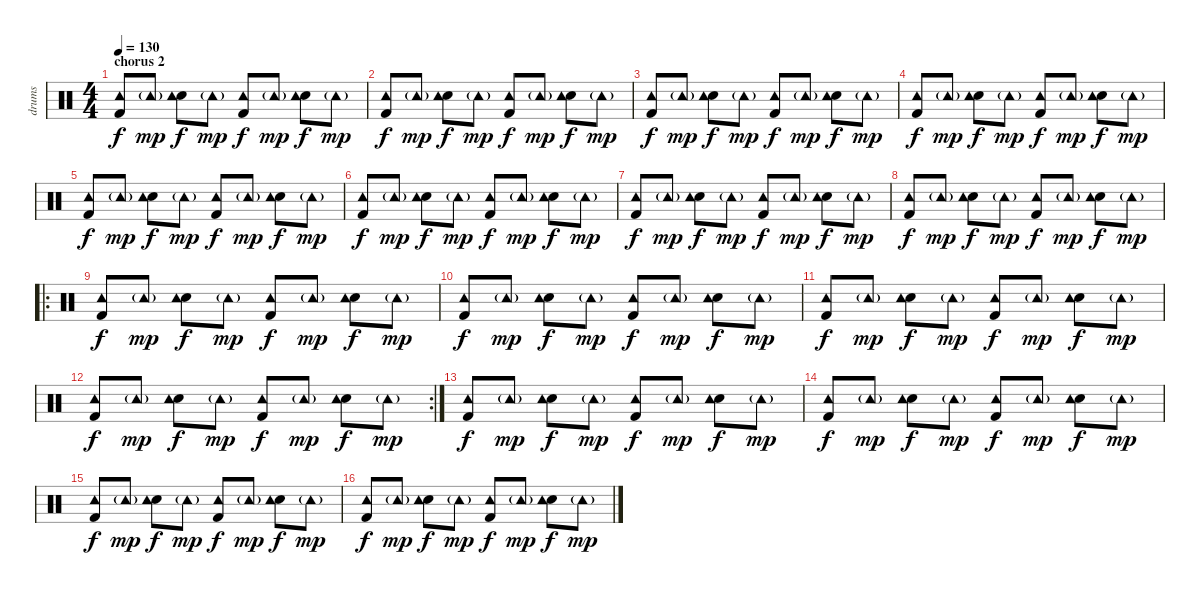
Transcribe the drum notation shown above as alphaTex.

\track ("drums" "drums") {instrument percussion}
\staff {score}
\articulation defaults
\ts (4 4)
\section ("" "chorus 2")
\tempo 130
\clef neutral
\ks c
("Kick (hit) 2" "Tambourine (hit)").8{dy f} "Tambourine (hit)"{g}.8{dy mp} ("Electric Snare (hit)" "Tambourine (hit)").8{dy f} "Tambourine (hit)"{g}.8{dy mp} ("Kick (hit) 2" "Tambourine (hit)").8{dy f} "Tambourine (hit)"{g}.8{dy mp} ("Electric Snare (hit)" "Tambourine (hit)").8{dy f} "Tambourine (hit)"{g}.8{dy mp} |
("Kick (hit) 2" "Tambourine (hit)").8{dy f} "Tambourine (hit)"{g}.8{dy mp} ("Electric Snare (hit)" "Tambourine (hit)").8{dy f} "Tambourine (hit)"{g}.8{dy mp} ("Kick (hit) 2" "Tambourine (hit)").8{dy f} "Tambourine (hit)"{g}.8{dy mp} ("Electric Snare (hit)" "Tambourine (hit)").8{dy f} "Tambourine (hit)"{g}.8{dy mp} |
("Kick (hit) 2" "Tambourine (hit)").8{dy f} "Tambourine (hit)"{g}.8{dy mp} ("Electric Snare (hit)" "Tambourine (hit)").8{dy f} "Tambourine (hit)"{g}.8{dy mp} ("Kick (hit) 2" "Tambourine (hit)").8{dy f} "Tambourine (hit)"{g}.8{dy mp} ("Electric Snare (hit)" "Tambourine (hit)").8{dy f} "Tambourine (hit)"{g}.8{dy mp} |
("Kick (hit) 2" "Tambourine (hit)").8{dy f} "Tambourine (hit)"{g}.8{dy mp} ("Electric Snare (hit)" "Tambourine (hit)").8{dy f} "Tambourine (hit)"{g}.8{dy mp} ("Kick (hit) 2" "Tambourine (hit)").8{dy f} "Tambourine (hit)"{g}.8{dy mp} ("Electric Snare (hit)" "Tambourine (hit)").8{dy f} "Tambourine (hit)"{g}.8{dy mp} |
("Kick (hit) 2" "Tambourine (hit)").8{dy f} "Tambourine (hit)"{g}.8{dy mp} ("Electric Snare (hit)" "Tambourine (hit)").8{dy f} "Tambourine (hit)"{g}.8{dy mp} ("Kick (hit) 2" "Tambourine (hit)").8{dy f} "Tambourine (hit)"{g}.8{dy mp} ("Electric Snare (hit)" "Tambourine (hit)").8{dy f} "Tambourine (hit)"{g}.8{dy mp} |
("Kick (hit) 2" "Tambourine (hit)").8{dy f} "Tambourine (hit)"{g}.8{dy mp} ("Electric Snare (hit)" "Tambourine (hit)").8{dy f} "Tambourine (hit)"{g}.8{dy mp} ("Kick (hit) 2" "Tambourine (hit)").8{dy f} "Tambourine (hit)"{g}.8{dy mp} ("Electric Snare (hit)" "Tambourine (hit)").8{dy f} "Tambourine (hit)"{g}.8{dy mp} |
("Kick (hit) 2" "Tambourine (hit)").8{dy f} "Tambourine (hit)"{g}.8{dy mp} ("Electric Snare (hit)" "Tambourine (hit)").8{dy f} "Tambourine (hit)"{g}.8{dy mp} ("Kick (hit) 2" "Tambourine (hit)").8{dy f} "Tambourine (hit)"{g}.8{dy mp} ("Electric Snare (hit)" "Tambourine (hit)").8{dy f} "Tambourine (hit)"{g}.8{dy mp} |
("Kick (hit) 2" "Tambourine (hit)").8{dy f} "Tambourine (hit)"{g}.8{dy mp} ("Electric Snare (hit)" "Tambourine (hit)").8{dy f} "Tambourine (hit)"{g}.8{dy mp} ("Kick (hit) 2" "Tambourine (hit)").8{dy f} "Tambourine (hit)"{g}.8{dy mp} ("Electric Snare (hit)" "Tambourine (hit)").8{dy f} "Tambourine (hit)"{g}.8{dy mp} |
\ro
("Kick (hit) 2" "Tambourine (hit)").8{dy f} "Tambourine (hit)"{g}.8{dy mp} ("Electric Snare (hit)" "Tambourine (hit)").8{dy f} "Tambourine (hit)"{g}.8{dy mp} ("Kick (hit) 2" "Tambourine (hit)").8{dy f} "Tambourine (hit)"{g}.8{dy mp} ("Electric Snare (hit)" "Tambourine (hit)").8{dy f} "Tambourine (hit)"{g}.8{dy mp} |
("Kick (hit) 2" "Tambourine (hit)").8{dy f} "Tambourine (hit)"{g}.8{dy mp} ("Electric Snare (hit)" "Tambourine (hit)").8{dy f} "Tambourine (hit)"{g}.8{dy mp} ("Kick (hit) 2" "Tambourine (hit)").8{dy f} "Tambourine (hit)"{g}.8{dy mp} ("Electric Snare (hit)" "Tambourine (hit)").8{dy f} "Tambourine (hit)"{g}.8{dy mp} |
("Kick (hit) 2" "Tambourine (hit)").8{dy f} "Tambourine (hit)"{g}.8{dy mp} ("Electric Snare (hit)" "Tambourine (hit)").8{dy f} "Tambourine (hit)"{g}.8{dy mp} ("Kick (hit) 2" "Tambourine (hit)").8{dy f} "Tambourine (hit)"{g}.8{dy mp} ("Electric Snare (hit)" "Tambourine (hit)").8{dy f} "Tambourine (hit)"{g}.8{dy mp} |
\rc 2
("Kick (hit) 2" "Tambourine (hit)").8{dy f} "Tambourine (hit)"{g}.8{dy mp} ("Electric Snare (hit)" "Tambourine (hit)").8{dy f} "Tambourine (hit)"{g}.8{dy mp} ("Kick (hit) 2" "Tambourine (hit)").8{dy f} "Tambourine (hit)"{g}.8{dy mp} ("Electric Snare (hit)" "Tambourine (hit)").8{dy f} "Tambourine (hit)"{g}.8{dy mp} |
("Kick (hit) 2" "Tambourine (hit)").8{dy f} "Tambourine (hit)"{g}.8{dy mp} ("Electric Snare (hit)" "Tambourine (hit)").8{dy f} "Tambourine (hit)"{g}.8{dy mp} ("Kick (hit) 2" "Tambourine (hit)").8{dy f} "Tambourine (hit)"{g}.8{dy mp} ("Electric Snare (hit)" "Tambourine (hit)").8{dy f} "Tambourine (hit)"{g}.8{dy mp} |
("Kick (hit) 2" "Tambourine (hit)").8{dy f} "Tambourine (hit)"{g}.8{dy mp} ("Electric Snare (hit)" "Tambourine (hit)").8{dy f} "Tambourine (hit)"{g}.8{dy mp} ("Kick (hit) 2" "Tambourine (hit)").8{dy f} "Tambourine (hit)"{g}.8{dy mp} ("Electric Snare (hit)" "Tambourine (hit)").8{dy f} "Tambourine (hit)"{g}.8{dy mp} |
("Kick (hit) 2" "Tambourine (hit)").8{dy f} "Tambourine (hit)"{g}.8{dy mp} ("Electric Snare (hit)" "Tambourine (hit)").8{dy f} "Tambourine (hit)"{g}.8{dy mp} ("Kick (hit) 2" "Tambourine (hit)").8{dy f} "Tambourine (hit)"{g}.8{dy mp} ("Electric Snare (hit)" "Tambourine (hit)").8{dy f} "Tambourine (hit)"{g}.8{dy mp} |
("Kick (hit) 2" "Tambourine (hit)").8{dy f} "Tambourine (hit)"{g}.8{dy mp} ("Electric Snare (hit)" "Tambourine (hit)").8{dy f} "Tambourine (hit)"{g}.8{dy mp} ("Kick (hit) 2" "Tambourine (hit)").8{dy f} "Tambourine (hit)"{g}.8{dy mp} ("Electric Snare (hit)" "Tambourine (hit)").8{dy f} "Tambourine (hit)"{g}.8{dy mp}
